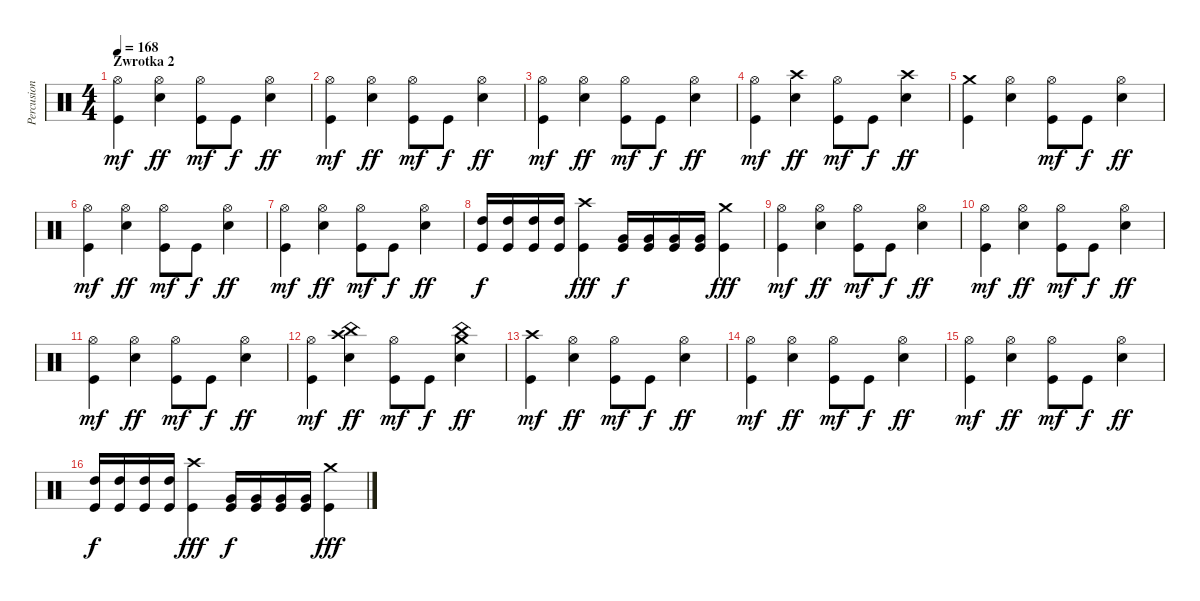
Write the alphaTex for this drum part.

\track ("Percusion" "Percusion") {instrument percussion}
\staff {score}
\articulation defaults
\ts (4 4)
\section ("" "Zwrotka 2")
\tempo 168
\clef neutral
\ks c
("Hi-Hat (open)" "Kick (hit)").4{dy mf} ("Hi-Hat (open)" "Snare (hit) 2").4{dy ff} ("Hi-Hat (open)" "Kick (hit)").8{dy mf} "Kick (hit)".8{dy f} ("Hi-Hat (open)" "Snare (hit) 2").4{dy ff} |
("Hi-Hat (open)" "Kick (hit)").4{dy mf} ("Hi-Hat (open)" "Snare (hit) 2").4{dy ff} ("Hi-Hat (open)" "Kick (hit)").8{dy mf} "Kick (hit)".8{dy f} ("Hi-Hat (open)" "Snare (hit) 2").4{dy ff} |
("Hi-Hat (open)" "Kick (hit)").4{dy mf} ("Hi-Hat (open)" "Snare (hit) 2").4{dy ff} ("Hi-Hat (open)" "Kick (hit)").8{dy mf} "Kick (hit)".8{dy f} ("Hi-Hat (open)" "Snare (hit) 2").4{dy ff} |
("Hi-Hat (open)" "Kick (hit)").4{dy mf} ("Crash high (hit)" "Snare (hit) 2").4{dy ff} ("Hi-Hat (open)" "Kick (hit)").8{dy mf} "Kick (hit)".8{dy f} ("Crash high (hit)" "Snare (hit) 2").4{dy ff} |
("Crash medium (hit)" "Kick (hit)").4 ("Hi-Hat (open)" "Snare (hit) 2").4 ("Hi-Hat (open)" "Kick (hit)").8{dy mf} "Kick (hit)".8{dy f} ("Hi-Hat (open)" "Snare (hit) 2").4{dy ff} |
("Hi-Hat (open)" "Kick (hit)").4{dy mf} ("Hi-Hat (open)" "Snare (hit) 2").4{dy ff} ("Hi-Hat (open)" "Kick (hit)").8{dy mf} "Kick (hit)".8{dy f} ("Hi-Hat (open)" "Snare (hit) 2").4{dy ff} |
("Hi-Hat (open)" "Kick (hit)").4{dy mf} ("Hi-Hat (open)" "Snare (hit) 2").4{dy ff} ("Hi-Hat (open)" "Kick (hit)").8{dy mf} "Kick (hit)".8{dy f} ("Hi-Hat (open)" "Snare (hit) 2").4{dy ff} |
("High Tom (hit)" "Kick (hit)").16{dy f} ("High Tom (hit)" "Kick (hit)").16 ("High Tom (hit)" "Kick (hit)").16 ("High Tom (hit)" "Kick (hit)").16 ("Crash high (hit)" "Kick (hit)").4{dy fff} ("Very Low Tom (hit)" "Kick (hit)").16{dy f} ("Very Low Tom (hit)" "Kick (hit)").16 ("Very Low Tom (hit)" "Kick (hit)").16 ("Very Low Tom (hit)" "Kick (hit)").16 ("Crash medium (hit)" "Kick (hit)").4{dy fff} |
("Hi-Hat (open)" "Kick (hit)").4{dy mf} ("Hi-Hat (open)" "Snare (hit) 2").4{dy ff} ("Hi-Hat (open)" "Kick (hit)").8{dy mf} "Kick (hit)".8{dy f} ("Hi-Hat (open)" "Snare (hit) 2").4{dy ff} |
("Hi-Hat (open)" "Kick (hit)").4{dy mf} ("Hi-Hat (open)" "Snare (hit) 2").4{dy ff} ("Hi-Hat (open)" "Kick (hit)").8{dy mf} "Kick (hit)".8{dy f} ("Hi-Hat (open)" "Snare (hit) 2").4{dy ff} |
("Hi-Hat (open)" "Kick (hit)").4{dy mf} ("Hi-Hat (open)" "Snare (hit) 2").4{dy ff} ("Hi-Hat (open)" "Kick (hit)").8{dy mf} "Kick (hit)".8{dy f} ("Hi-Hat (open)" "Snare (hit) 2").4{dy ff} |
("Hi-Hat (open)" "Kick (hit)").4{dy mf} ("Crash high (hit)" "China (hit)" "Snare (hit) 2").4{dy ff} ("Hi-Hat (open)" "Kick (hit)").8{dy mf} "Kick (hit)".8{dy f} ("Crash medium (hit)" "China (hit)" "Snare (hit) 2").4{dy ff} |
("Crash high (hit)" "Kick (hit)").4{dy mf} ("Hi-Hat (open)" "Snare (hit) 2").4{dy ff} ("Hi-Hat (open)" "Kick (hit)").8{dy mf} "Kick (hit)".8{dy f} ("Hi-Hat (open)" "Snare (hit) 2").4{dy ff} |
("Hi-Hat (open)" "Kick (hit)").4{dy mf} ("Hi-Hat (open)" "Snare (hit) 2").4{dy ff} ("Hi-Hat (open)" "Kick (hit)").8{dy mf} "Kick (hit)".8{dy f} ("Hi-Hat (open)" "Snare (hit) 2").4{dy ff} |
("Hi-Hat (open)" "Kick (hit)").4{dy mf} ("Hi-Hat (open)" "Snare (hit) 2").4{dy ff} ("Hi-Hat (open)" "Kick (hit)").8{dy mf} "Kick (hit)".8{dy f} ("Hi-Hat (open)" "Snare (hit) 2").4{dy ff} |
("High Tom (hit)" "Kick (hit)").16{dy f} ("High Tom (hit)" "Kick (hit)").16 ("High Tom (hit)" "Kick (hit)").16 ("High Tom (hit)" "Kick (hit)").16 ("Crash high (hit)" "Kick (hit)").4{dy fff} ("Very Low Tom (hit)" "Kick (hit)").16{dy f} ("Very Low Tom (hit)" "Kick (hit)").16 ("Very Low Tom (hit)" "Kick (hit)").16 ("Very Low Tom (hit)" "Kick (hit)").16 ("Crash medium (hit)" "Kick (hit)").4{dy fff}
